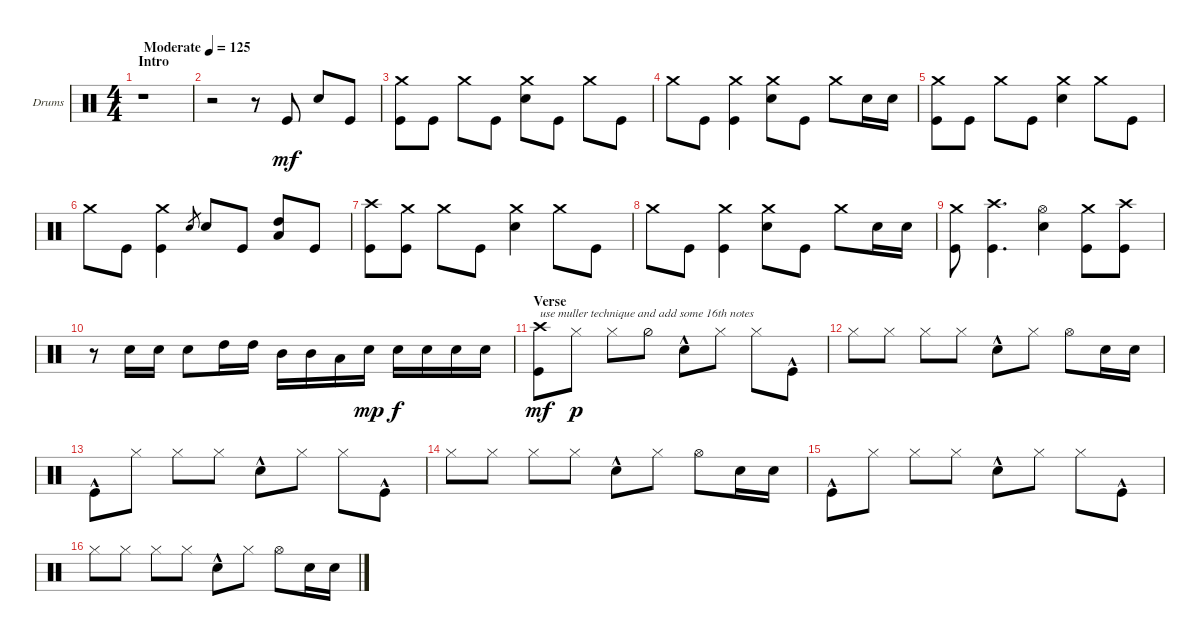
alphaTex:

\bracketExtendMode groupsimilarinstruments
\firstSystemTrackNameOrientation horizontal
\otherSystemsTrackNameOrientation horizontal
\track ("Drums (chad ...)" "Drums") {instrument percussion}
\staff {score}
\articulation defaults
\ts (4 4)
\beaming (8 2 2 2 2)
\section ("" "Intro")
\tempo (125 "Moderate")
\clef neutral
\scale
0.474178
\ks c
r.1{dy mf} |
\scale
0.262911 r.2 r.8 "Kick (hit)".8 "Snare (hit) 2".8 "Kick (hit)".8 |
\scale
0.262911 ("Crash medium (hit)" "Kick (hit)").8 "Kick (hit)".8 "Crash medium (hit)".8 "Kick (hit)".8 ("Crash medium (hit)" "Snare (hit) 2").8 "Kick (hit)".8 "Crash medium (hit)".8 "Kick (hit)".8 |
\scale
0.333333 "Crash medium (hit)".8 "Kick (hit)".8 ("Kick (hit)" "Crash medium (hit)").4 ("Snare (hit) 2" "Crash medium (hit)").8 "Kick (hit)".8 "Crash medium (hit)".8 "Snare (hit) 2".16 "Snare (hit) 2".16 |
\scale
0.333333 ("Crash medium (hit)" "Kick (hit)").8 "Kick (hit)".8 "Crash medium (hit)".8 "Kick (hit)".8 ("Crash medium (hit)" "Snare (hit) 2").4 "Crash medium (hit)".8 "Kick (hit)".8 |
\scale
0.333333 "Crash medium (hit)".8 "Kick (hit)".8 ("Kick (hit)" "Crash medium (hit)").4 "Snare (hit) 2".8{gr} "Snare (hit) 2".8 "Kick (hit)".8 ("Low Tom (hit)" "High Tom (hit)").8 "Kick (hit)".8 |
\scale
0.333333 ("Kick (hit)" "Crash high (hit)").8 ("Kick (hit)" "Crash medium (hit)").8 "Crash medium (hit)".8 "Kick (hit)".8 ("Crash medium (hit)" "Snare (hit) 2").4 "Crash medium (hit)".8 "Kick (hit)".8 |
\scale
0.333333 "Crash medium (hit)".8 "Kick (hit)".8 ("Kick (hit)" "Crash medium (hit)").4 ("Snare (hit) 2" "Crash medium (hit)").8 "Kick (hit)".8 "Crash medium (hit)".8 "Snare (hit) 2".16 "Snare (hit) 2".16 |
\scale
0.333333 ("Crash medium (hit)" "Kick (hit)").8 ("Crash high (hit)" "Kick (hit)").4{d} ("Hi-Hat (open)" "Snare (hit) 2").4 ("Kick (hit)" "Crash medium (hit)").8 ("Kick (hit)" "Crash high (hit)").8 |
r.8 "Snare (hit) 2".16 "Snare (hit) 2".16 "Snare (hit) 2".8 "High Tom (hit)".16 "High Tom (hit)".16 "Mid Tom (hit)".16 "Mid Tom (hit)".16 "Low Tom (hit)".16 "Snare (hit) 2".16{dy mp} "Snare (hit) 2".16{dy f} "Snare (hit) 2".16 "Snare (hit) 2".16 "Snare (hit) 2".16 |
\section ("" "Verse")
("Crash high (hit)" "Kick (hit)").8{txt "use muller technique and add some 16th notes" dy mf} "Hi-Hat (closed)".8{dy p} "Hi-Hat (closed)".8 "Hi-Hat (half)".8 "Snare (hit) 2"{hac}.8 "Hi-Hat (closed)".8 "Hi-Hat (closed)".8 "Kick (hit)"{hac}.8 |
"Hi-Hat (closed)".8 "Hi-Hat (closed)".8 "Hi-Hat (closed)".8 "Hi-Hat (closed)".8 "Snare (hit) 2"{hac}.8 "Hi-Hat (closed)".8 "Hi-Hat (open)".8 "Snare (hit) 2".16 "Snare (hit) 2".16 |
"Kick (hit)"{hac}.8 "Hi-Hat (closed)".8 "Hi-Hat (closed)".8 "Hi-Hat (closed)".8 "Snare (hit) 2"{hac}.8 "Hi-Hat (closed)".8 "Hi-Hat (closed)".8 "Kick (hit)"{hac}.8 |
"Hi-Hat (closed)".8 "Hi-Hat (closed)".8 "Hi-Hat (closed)".8 "Hi-Hat (closed)".8 "Snare (hit) 2"{hac}.8 "Hi-Hat (closed)".8 "Hi-Hat (open)".8 "Snare (hit) 2".16 "Snare (hit) 2".16 |
"Kick (hit)"{hac}.8 "Hi-Hat (closed)".8 "Hi-Hat (closed)".8 "Hi-Hat (closed)".8 "Snare (hit) 2"{hac}.8 "Hi-Hat (closed)".8 "Hi-Hat (closed)".8 "Kick (hit)"{hac}.8 |
"Hi-Hat (closed)".8 "Hi-Hat (closed)".8 "Hi-Hat (closed)".8 "Hi-Hat (closed)".8 "Snare (hit) 2"{hac}.8 "Hi-Hat (closed)".8 "Hi-Hat (open)".8 "Snare (hit) 2".16 "Snare (hit) 2".16
